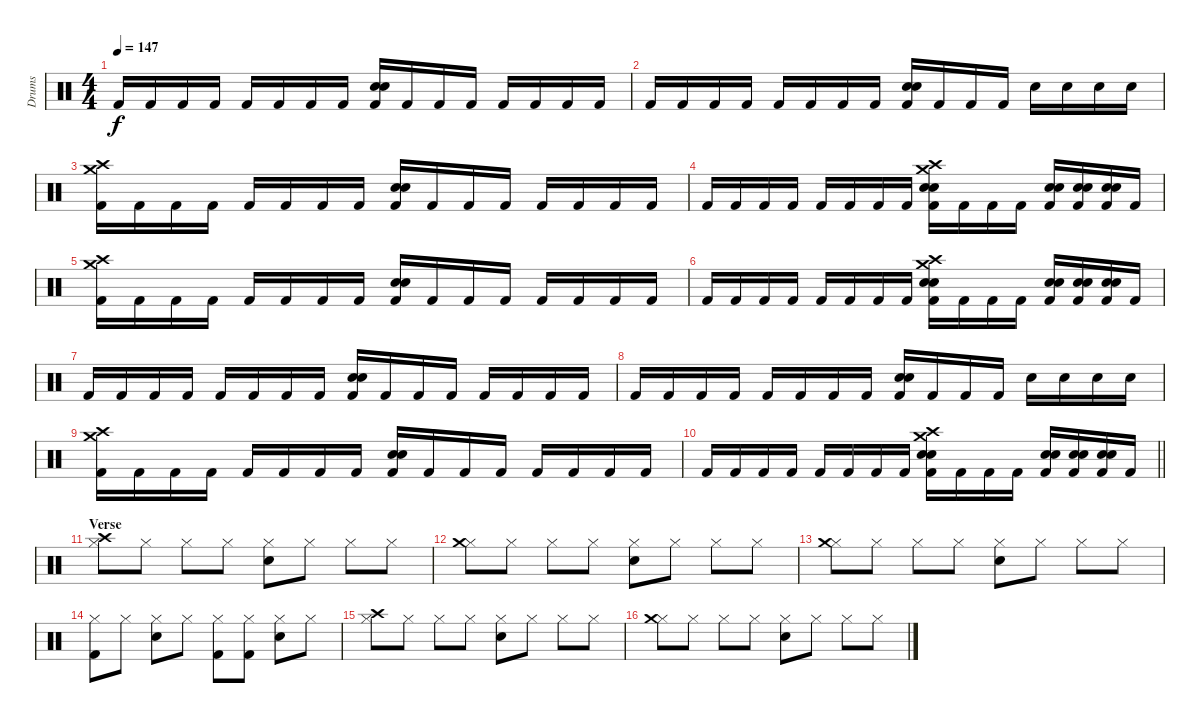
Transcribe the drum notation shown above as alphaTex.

\track ("Drums" "Drums") {instrument percussion}
\staff
\articulation defaults
\ts (4 4)
\tempo 147
\clef neutral
\ks c "Kick (hit) 2".16{dy f} "Kick (hit) 2".16 "Kick (hit) 2".16 "Kick (hit) 2".16 "Kick (hit) 2".16 "Kick (hit) 2".16 "Kick (hit) 2".16 "Kick (hit) 2".16
("Kick (hit) 2" "Electric Snare (hit)" "Snare (hit) 2").16 "Kick (hit) 2".16 "Kick (hit) 2".16 "Kick (hit) 2".16 "Kick (hit) 2".16 "Kick (hit) 2".16 "Kick (hit) 2".16 "Kick (hit) 2".16 |
"Kick (hit) 2".16 "Kick (hit) 2".16 "Kick (hit) 2".16 "Kick (hit) 2".16 "Kick (hit) 2".16 "Kick (hit) 2".16 "Kick (hit) 2".16 "Kick (hit) 2".16 ("Kick (hit) 2" "Electric Snare (hit)" "Snare (hit) 2").16 "Kick (hit) 2".16 "Kick (hit) 2".16 "Kick (hit) 2".16 "Snare (hit) 2".16 "Snare (hit) 2".16 "Snare (hit) 2".16 "Snare (hit) 2".16 |
("Crash high (hit)" "Kick (hit) 2" "Crash medium (hit)").16 "Kick (hit) 2".16 "Kick (hit) 2".16 "Kick (hit) 2".16 "Kick (hit) 2".16 "Kick (hit) 2".16 "Kick (hit) 2".16 "Kick (hit) 2".16 ("Kick (hit) 2" "Electric Snare (hit)" "Snare (hit) 2").16 "Kick (hit) 2".16 "Kick (hit) 2".16 "Kick (hit) 2".16 "Kick (hit) 2".16 "Kick (hit) 2".16 "Kick (hit) 2".16 "Kick (hit) 2".16 |
"Kick (hit) 2".16 "Kick (hit) 2".16 "Kick (hit) 2".16 "Kick (hit) 2".16 "Kick (hit) 2".16 "Kick (hit) 2".16 "Kick (hit) 2".16 "Kick (hit) 2".16 ("Crash medium (hit)" "Crash high (hit)" "Kick (hit) 2" "Electric Snare (hit)" "Snare (hit) 2").16 "Kick (hit) 2".16 "Kick (hit) 2".16 "Kick (hit) 2".16 ("Kick (hit) 2" "Electric Snare (hit)" "Snare (hit) 2").16 ("Kick (hit) 2" "Electric Snare (hit)" "Snare (hit) 2").16 ("Kick (hit) 2" "Electric Snare (hit)" "Snare (hit) 2").16 "Kick (hit) 2".16 |
("Crash high (hit)" "Kick (hit) 2" "Crash medium (hit)").16 "Kick (hit) 2".16 "Kick (hit) 2".16 "Kick (hit) 2".16 "Kick (hit) 2".16 "Kick (hit) 2".16 "Kick (hit) 2".16 "Kick (hit) 2".16 ("Kick (hit) 2" "Electric Snare (hit)" "Snare (hit) 2").16 "Kick (hit) 2".16 "Kick (hit) 2".16 "Kick (hit) 2".16 "Kick (hit) 2".16 "Kick (hit) 2".16 "Kick (hit) 2".16 "Kick (hit) 2".16 |
"Kick (hit) 2".16 "Kick (hit) 2".16 "Kick (hit) 2".16 "Kick (hit) 2".16 "Kick (hit) 2".16 "Kick (hit) 2".16 "Kick (hit) 2".16 "Kick (hit) 2".16 ("Crash medium (hit)" "Crash high (hit)" "Kick (hit) 2" "Electric Snare (hit)" "Snare (hit) 2").16 "Kick (hit) 2".16 "Kick (hit) 2".16 "Kick (hit) 2".16 ("Kick (hit) 2" "Electric Snare (hit)" "Snare (hit) 2").16 ("Kick (hit) 2" "Electric Snare (hit)" "Snare (hit) 2").16 ("Kick (hit) 2" "Electric Snare (hit)" "Snare (hit) 2").16 "Kick (hit) 2".16 |
"Kick (hit) 2".16 "Kick (hit) 2".16 "Kick (hit) 2".16 "Kick (hit) 2".16 "Kick (hit) 2".16 "Kick (hit) 2".16 "Kick (hit) 2".16 "Kick (hit) 2".16 ("Kick (hit) 2" "Electric Snare (hit)" "Snare (hit) 2").16 "Kick (hit) 2".16 "Kick (hit) 2".16 "Kick (hit) 2".16 "Kick (hit) 2".16 "Kick (hit) 2".16 "Kick (hit) 2".16 "Kick (hit) 2".16 |
"Kick (hit) 2".16 "Kick (hit) 2".16 "Kick (hit) 2".16 "Kick (hit) 2".16 "Kick (hit) 2".16 "Kick (hit) 2".16 "Kick (hit) 2".16 "Kick (hit) 2".16 ("Kick (hit) 2" "Electric Snare (hit)" "Snare (hit) 2").16 "Kick (hit) 2".16 "Kick (hit) 2".16 "Kick (hit) 2".16 "Snare (hit) 2".16 "Snare (hit) 2".16 "Snare (hit) 2".16 "Snare (hit) 2".16 |
("Crash high (hit)" "Kick (hit) 2" "Crash medium (hit)").16 "Kick (hit) 2".16 "Kick (hit) 2".16 "Kick (hit) 2".16 "Kick (hit) 2".16 "Kick (hit) 2".16 "Kick (hit) 2".16 "Kick (hit) 2".16 ("Kick (hit) 2" "Electric Snare (hit)" "Snare (hit) 2").16 "Kick (hit) 2".16 "Kick (hit) 2".16 "Kick (hit) 2".16 "Kick (hit) 2".16 "Kick (hit) 2".16 "Kick (hit) 2".16 "Kick (hit) 2".16 |
\barLineRight lightlight "Kick (hit) 2".16 "Kick (hit) 2".16 "Kick (hit) 2".16 "Kick (hit) 2".16 "Kick (hit) 2".16 "Kick (hit) 2".16 "Kick (hit) 2".16 "Kick (hit) 2".16
("Crash medium (hit)" "Crash high (hit)" "Kick (hit) 2" "Electric Snare (hit)" "Snare (hit) 2").16 "Kick (hit) 2".16 "Kick (hit) 2".16 "Kick (hit) 2".16 ("Kick (hit) 2" "Electric Snare (hit)" "Snare (hit) 2").16 ("Kick (hit) 2" "Electric Snare (hit)" "Snare (hit) 2").16 ("Kick (hit) 2" "Electric Snare (hit)" "Snare (hit) 2").16 "Kick (hit) 2".16 |
\section ("" "Verse")
("Hi-Hat (closed)" "Crash high (hit)").8 "Hi-Hat (closed)".8 "Hi-Hat (closed)".8 "Hi-Hat (closed)".8 ("Hi-Hat (closed)" "Snare (hit) 2").8 "Hi-Hat (closed)".8 "Hi-Hat (closed)".8 "Hi-Hat (closed)".8 |
("Hi-Hat (closed)" "Crash medium (hit)").8 "Hi-Hat (closed)".8 "Hi-Hat (closed)".8 "Hi-Hat (closed)".8 ("Hi-Hat (closed)" "Snare (hit) 2").8 "Hi-Hat (closed)".8 "Hi-Hat (closed)".8 "Hi-Hat (closed)".8 |
("Hi-Hat (closed)" "Crash medium (hit)").8 "Hi-Hat (closed)".8 "Hi-Hat (closed)".8 "Hi-Hat (closed)".8 ("Hi-Hat (closed)" "Snare (hit) 2").8 "Hi-Hat (closed)".8 "Hi-Hat (closed)".8 "Hi-Hat (closed)".8 |
("Hi-Hat (closed)" "Kick (hit) 2").8 "Hi-Hat (closed)".8 ("Hi-Hat (closed)" "Snare (hit) 2").8 "Hi-Hat (closed)".8 ("Hi-Hat (closed)" "Kick (hit) 2").8 ("Hi-Hat (closed)" "Kick (hit) 2").8 ("Hi-Hat (closed)" "Snare (hit) 2").8 "Hi-Hat (closed)".8 |
("Hi-Hat (closed)" "Crash high (hit)").8 "Hi-Hat (closed)".8 "Hi-Hat (closed)".8 "Hi-Hat (closed)".8 ("Hi-Hat (closed)" "Snare (hit) 2").8 "Hi-Hat (closed)".8 "Hi-Hat (closed)".8 "Hi-Hat (closed)".8 |
("Hi-Hat (closed)" "Crash medium (hit)").8 "Hi-Hat (closed)".8 "Hi-Hat (closed)".8 "Hi-Hat (closed)".8 ("Hi-Hat (closed)" "Snare (hit) 2").8 "Hi-Hat (closed)".8 "Hi-Hat (closed)".8 "Hi-Hat (closed)".8
